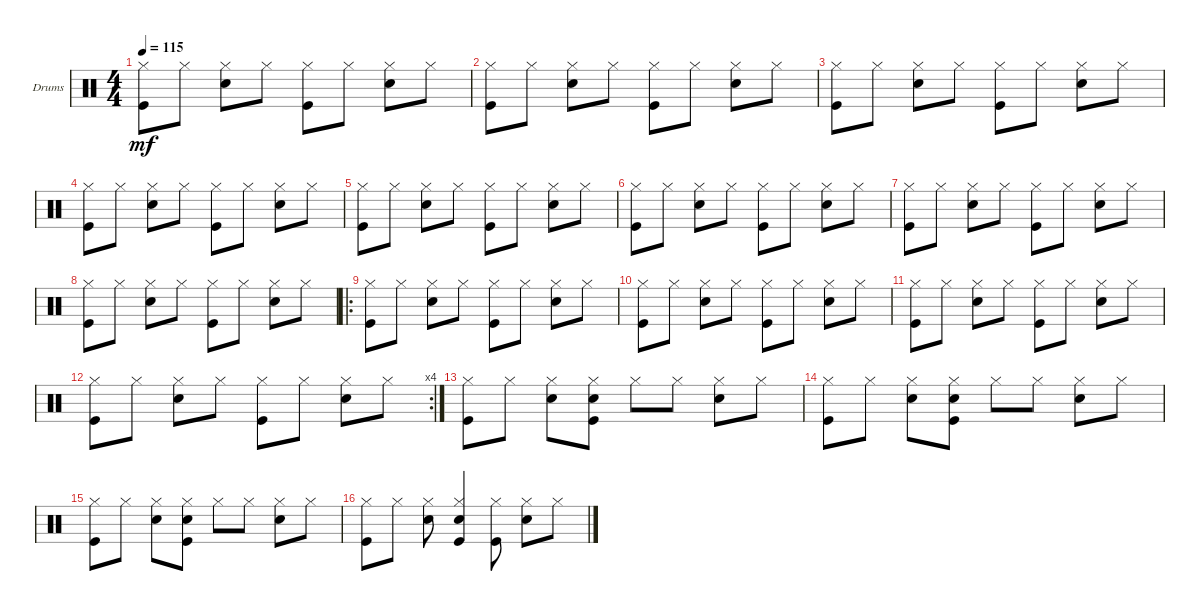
\defaultSystemsLayout 4
\bracketExtendMode groupsimilarinstruments
\firstSystemTrackNameOrientation horizontal
\otherSystemsTrackNameOrientation horizontal
\track ("Drumkit" "Drums") {instrument percussion}
\staff {score}
\articulation defaults
\ts (4 4)
\tempo 115
\clef neutral
\ks c
("Kick (hit)" "Hi-Hat (closed)").8{dy mf} "Hi-Hat (closed)".8 ("Snare (hit) 2" "Hi-Hat (closed)").8 "Hi-Hat (closed)".8 ("Kick (hit)" "Hi-Hat (closed)").8 "Hi-Hat (closed)".8 ("Snare (hit) 2" "Hi-Hat (closed)").8 "Hi-Hat (closed)".8 |
("Kick (hit)" "Hi-Hat (closed)").8 "Hi-Hat (closed)".8 ("Snare (hit) 2" "Hi-Hat (closed)").8 "Hi-Hat (closed)".8 ("Kick (hit)" "Hi-Hat (closed)").8 "Hi-Hat (closed)".8 ("Snare (hit) 2" "Hi-Hat (closed)").8 "Hi-Hat (closed)".8 |
("Kick (hit)" "Hi-Hat (closed)").8 "Hi-Hat (closed)".8 ("Snare (hit) 2" "Hi-Hat (closed)").8 "Hi-Hat (closed)".8 ("Kick (hit)" "Hi-Hat (closed)").8 "Hi-Hat (closed)".8 ("Snare (hit) 2" "Hi-Hat (closed)").8 "Hi-Hat (closed)".8 |
("Kick (hit)" "Hi-Hat (closed)").8 "Hi-Hat (closed)".8 ("Snare (hit) 2" "Hi-Hat (closed)").8 "Hi-Hat (closed)".8 ("Kick (hit)" "Hi-Hat (closed)").8 "Hi-Hat (closed)".8 ("Snare (hit) 2" "Hi-Hat (closed)").8 "Hi-Hat (closed)".8 |
("Kick (hit)" "Hi-Hat (closed)").8 "Hi-Hat (closed)".8 ("Snare (hit) 2" "Hi-Hat (closed)").8 "Hi-Hat (closed)".8 ("Kick (hit)" "Hi-Hat (closed)").8 "Hi-Hat (closed)".8 ("Snare (hit) 2" "Hi-Hat (closed)").8 "Hi-Hat (closed)".8 |
("Kick (hit)" "Hi-Hat (closed)").8 "Hi-Hat (closed)".8 ("Snare (hit) 2" "Hi-Hat (closed)").8 "Hi-Hat (closed)".8 ("Kick (hit)" "Hi-Hat (closed)").8 "Hi-Hat (closed)".8 ("Snare (hit) 2" "Hi-Hat (closed)").8 "Hi-Hat (closed)".8 |
("Kick (hit)" "Hi-Hat (closed)").8 "Hi-Hat (closed)".8 ("Snare (hit) 2" "Hi-Hat (closed)").8 "Hi-Hat (closed)".8 ("Kick (hit)" "Hi-Hat (closed)").8 "Hi-Hat (closed)".8 ("Snare (hit) 2" "Hi-Hat (closed)").8 "Hi-Hat (closed)".8 |
("Kick (hit)" "Hi-Hat (closed)").8 "Hi-Hat (closed)".8 ("Snare (hit) 2" "Hi-Hat (closed)").8 "Hi-Hat (closed)".8 ("Kick (hit)" "Hi-Hat (closed)").8 "Hi-Hat (closed)".8 ("Snare (hit) 2" "Hi-Hat (closed)").8 "Hi-Hat (closed)".8 |
\ro
("Kick (hit)" "Hi-Hat (closed)").8 "Hi-Hat (closed)".8 ("Snare (hit) 2" "Hi-Hat (closed)").8 "Hi-Hat (closed)".8 ("Kick (hit)" "Hi-Hat (closed)").8 "Hi-Hat (closed)".8 ("Snare (hit) 2" "Hi-Hat (closed)").8 "Hi-Hat (closed)".8 |
("Kick (hit)" "Hi-Hat (closed)").8 "Hi-Hat (closed)".8 ("Snare (hit) 2" "Hi-Hat (closed)").8 "Hi-Hat (closed)".8 ("Kick (hit)" "Hi-Hat (closed)").8 "Hi-Hat (closed)".8 ("Snare (hit) 2" "Hi-Hat (closed)").8 "Hi-Hat (closed)".8 |
("Kick (hit)" "Hi-Hat (closed)").8 "Hi-Hat (closed)".8 ("Snare (hit) 2" "Hi-Hat (closed)").8 "Hi-Hat (closed)".8 ("Kick (hit)" "Hi-Hat (closed)").8 "Hi-Hat (closed)".8 ("Snare (hit) 2" "Hi-Hat (closed)").8 "Hi-Hat (closed)".8 |
\rc 4
("Kick (hit)" "Hi-Hat (closed)").8 "Hi-Hat (closed)".8 ("Snare (hit) 2" "Hi-Hat (closed)").8 "Hi-Hat (closed)".8 ("Kick (hit)" "Hi-Hat (closed)").8 "Hi-Hat (closed)".8 ("Snare (hit) 2" "Hi-Hat (closed)").8 "Hi-Hat (closed)".8 |
("Kick (hit)" "Hi-Hat (closed)").8 "Hi-Hat (closed)".8 ("Snare (hit) 2" "Hi-Hat (closed)").8 ("Kick (hit)" "Snare (hit) 2" "Hi-Hat (closed)").8 "Hi-Hat (closed)".8 "Hi-Hat (closed)".8 ("Hi-Hat (closed)" "Snare (hit) 2").8 "Hi-Hat (closed)".8 |
("Kick (hit)" "Hi-Hat (closed)").8 "Hi-Hat (closed)".8 ("Snare (hit) 2" "Hi-Hat (closed)").8 ("Kick (hit)" "Snare (hit) 2" "Hi-Hat (closed)").8 "Hi-Hat (closed)".8 "Hi-Hat (closed)".8 ("Hi-Hat (closed)" "Snare (hit) 2").8 "Hi-Hat (closed)".8 |
("Kick (hit)" "Hi-Hat (closed)").8 "Hi-Hat (closed)".8 ("Snare (hit) 2" "Hi-Hat (closed)").8 ("Kick (hit)" "Snare (hit) 2" "Hi-Hat (closed)").8 "Hi-Hat (closed)".8 "Hi-Hat (closed)".8 ("Hi-Hat (closed)" "Snare (hit) 2").8 "Hi-Hat (closed)".8 |
("Kick (hit)" "Hi-Hat (closed)").8 "Hi-Hat (closed)".8 ("Snare (hit) 2" "Hi-Hat (closed)").8 ("Kick (hit)" "Snare (hit) 2" "Hi-Hat (closed)").4 ("Hi-Hat (closed)" "Kick (hit)").8 ("Hi-Hat (closed)" "Snare (hit) 2").8 "Hi-Hat (closed)".8
